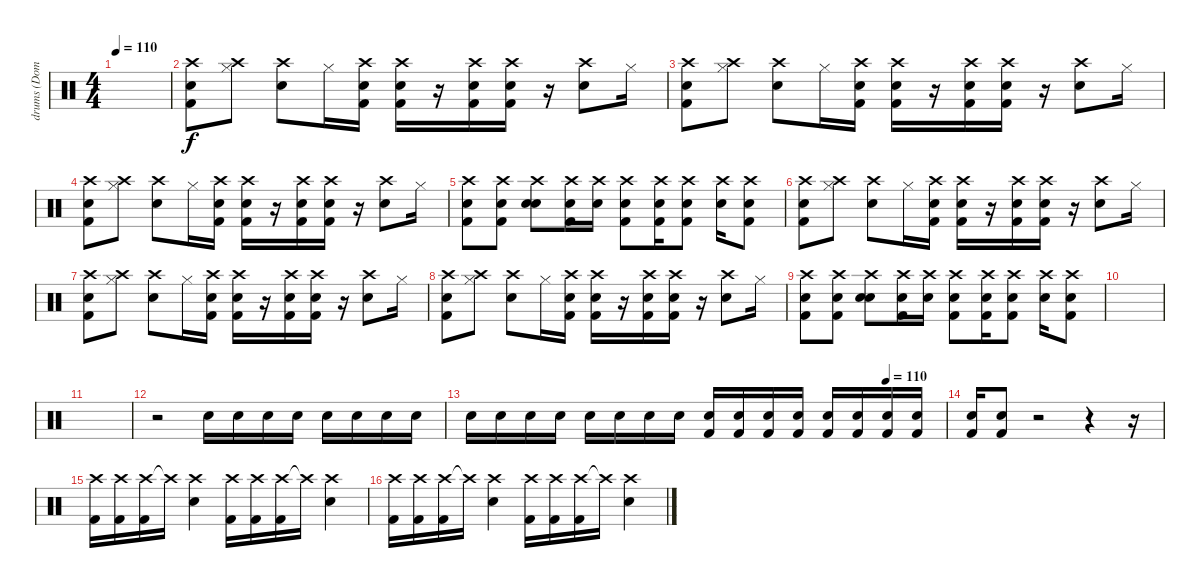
\track ("drums (Dominic howard)" "drums (Dom") {instrument percussion}
\staff {score}
\articulation defaults
\ts (4 4)
\tempo 110
\clef neutral
\ks c
|
("Crash high (hit)" "Kick (hit) 2" "Snare (hit) 2").8 ("Crash high (hit)" "Hi-Hat (closed)").8 ("Crash high (hit)" "Electric Snare (hit)").8 "Hi-Hat (closed)".16 ("Crash high (hit)" "Kick (hit) 2" "Snare (hit) 2").16 ("Crash high (hit)" "Kick (hit) 2" "Snare (hit) 2").16 r.16 ("Crash high (hit)" "Kick (hit) 2" "Snare (hit) 2").16 ("Crash high (hit)" "Kick (hit) 2" "Snare (hit) 2").16 r.16 ("Crash high (hit)" "Electric Snare (hit)").8 "Hi-Hat (closed)".16 |
("Crash high (hit)" "Kick (hit) 2" "Snare (hit) 2").8 ("Crash high (hit)" "Hi-Hat (closed)").8 ("Crash high (hit)" "Electric Snare (hit)").8 "Hi-Hat (closed)".16 ("Crash high (hit)" "Kick (hit) 2" "Snare (hit) 2").16 ("Crash high (hit)" "Kick (hit) 2" "Snare (hit) 2").16 r.16 ("Crash high (hit)" "Kick (hit) 2" "Snare (hit) 2").16 ("Crash high (hit)" "Kick (hit) 2" "Snare (hit) 2").16 r.16 ("Crash high (hit)" "Electric Snare (hit)").8 "Hi-Hat (closed)".16 |
("Crash high (hit)" "Kick (hit) 2" "Snare (hit) 2").8 ("Crash high (hit)" "Hi-Hat (closed)").8 ("Crash high (hit)" "Electric Snare (hit)").8 "Hi-Hat (closed)".16 ("Crash high (hit)" "Kick (hit) 2" "Snare (hit) 2").16 ("Crash high (hit)" "Kick (hit) 2" "Snare (hit) 2").16 r.16 ("Crash high (hit)" "Kick (hit) 2" "Snare (hit) 2").16 ("Crash high (hit)" "Kick (hit) 2" "Snare (hit) 2").16 r.16 ("Crash high (hit)" "Electric Snare (hit)").8 "Hi-Hat (closed)".16 |
("Crash high (hit)" "Kick (hit) 2" "Snare (hit) 2").8 ("Crash high (hit)" "Kick (hit) 2" "Snare (hit) 2").8 ("Crash high (hit)" "Electric Snare (hit)" "Electric Snare (hit)").8 ("Crash high (hit)" "Kick (hit) 2" "Snare (hit) 2").16 ("Crash high (hit)" "Electric Snare (hit)").16 ("Crash high (hit)" "Kick (hit) 2" "Snare (hit) 2").8 ("Crash high (hit)" "Kick (hit) 2" "Snare (hit) 2").16 ("Crash high (hit)" "Kick (hit) 2" "Snare (hit) 2").8 ("Crash high (hit)" "Electric Snare (hit)").16 ("Crash high (hit)" "Kick (hit) 2" "Snare (hit) 2").8 |
("Crash high (hit)" "Kick (hit) 2" "Snare (hit) 2").8 ("Crash high (hit)" "Hi-Hat (closed)").8 ("Crash high (hit)" "Electric Snare (hit)").8 "Hi-Hat (closed)".16 ("Crash high (hit)" "Kick (hit) 2" "Snare (hit) 2").16 ("Crash high (hit)" "Kick (hit) 2" "Snare (hit) 2").16 r.16 ("Crash high (hit)" "Kick (hit) 2" "Snare (hit) 2").16 ("Crash high (hit)" "Kick (hit) 2" "Snare (hit) 2").16 r.16 ("Crash high (hit)" "Electric Snare (hit)").8 "Hi-Hat (closed)".16 |
("Crash high (hit)" "Kick (hit) 2" "Snare (hit) 2").8 ("Crash high (hit)" "Hi-Hat (closed)").8 ("Crash high (hit)" "Electric Snare (hit)").8 "Hi-Hat (closed)".16 ("Crash high (hit)" "Kick (hit) 2" "Snare (hit) 2").16 ("Crash high (hit)" "Kick (hit) 2" "Snare (hit) 2").16 r.16 ("Crash high (hit)" "Kick (hit) 2" "Snare (hit) 2").16 ("Crash high (hit)" "Kick (hit) 2" "Snare (hit) 2").16 r.16 ("Crash high (hit)" "Electric Snare (hit)").8 "Hi-Hat (closed)".16 |
("Crash high (hit)" "Kick (hit) 2" "Snare (hit) 2").8 ("Crash high (hit)" "Hi-Hat (closed)").8 ("Crash high (hit)" "Electric Snare (hit)").8 "Hi-Hat (closed)".16 ("Crash high (hit)" "Kick (hit) 2" "Snare (hit) 2").16 ("Crash high (hit)" "Kick (hit) 2" "Snare (hit) 2").16 r.16 ("Crash high (hit)" "Kick (hit) 2" "Snare (hit) 2").16 ("Crash high (hit)" "Kick (hit) 2" "Snare (hit) 2").16 r.16 ("Crash high (hit)" "Electric Snare (hit)").8 "Hi-Hat (closed)".16 |
("Crash high (hit)" "Kick (hit) 2" "Snare (hit) 2").8 ("Crash high (hit)" "Kick (hit) 2" "Snare (hit) 2").8 ("Crash high (hit)" "Electric Snare (hit)" "Electric Snare (hit)").8 ("Crash high (hit)" "Kick (hit) 2" "Snare (hit) 2").16 ("Crash high (hit)" "Electric Snare (hit)").16 ("Crash high (hit)" "Kick (hit) 2" "Snare (hit) 2").8 ("Crash high (hit)" "Kick (hit) 2" "Snare (hit) 2").16 ("Crash high (hit)" "Kick (hit) 2" "Snare (hit) 2").8 ("Crash high (hit)" "Electric Snare (hit)").16 ("Crash high (hit)" "Kick (hit) 2" "Snare (hit) 2").8 |
|
|
r.2 "Snare (hit) 2".16{volume 4} "Snare (hit) 2".16 "Snare (hit) 2".16 "Snare (hit) 2".16 "Snare (hit) 2".16 "Snare (hit) 2".16 "Snare (hit) 2".16 "Snare (hit) 2".16 |
\tempo (110 0.875)
"Snare (hit) 2".16{volume 6} "Snare (hit) 2".16 "Snare (hit) 2".16 "Snare (hit) 2".16 "Snare (hit) 2".16 "Snare (hit) 2".16 "Snare (hit) 2".16 "Snare (hit) 2".16 ("Kick (hit) 2" "Snare (hit) 2").16{volume 8} ("Kick (hit) 2" "Snare (hit) 2").16 ("Kick (hit) 2" "Snare (hit) 2").16 ("Kick (hit) 2" "Snare (hit) 2").16 ("Kick (hit) 2" "Snare (hit) 2").16 ("Kick (hit) 2" "Snare (hit) 2").16 ("Kick (hit) 2" "Snare (hit) 2").16{volume 10} ("Kick (hit) 2" "Snare (hit) 2").16 |
("Kick (hit) 2" "Snare (hit) 2").16{volume 10} ("Kick (hit) 2" "Snare (hit) 2").8 r.2 r.4 r.16 |
("Crash high (hit)" "Kick (hit) 2").16 ("Crash high (hit)" "Kick (hit) 2").16 ("Crash high (hit)" "Kick (hit) 2").16 "Crash high (hit)"{t}.16 ("Crash high (hit)" "Electric Snare (hit)").4 ("Crash high (hit)" "Kick (hit) 2").16 ("Crash high (hit)" "Kick (hit) 2").16 ("Crash high (hit)" "Kick (hit) 2").16 "Crash high (hit)"{t}.16 ("Crash high (hit)" "Electric Snare (hit)").4 |
("Crash high (hit)" "Kick (hit) 2").16 ("Crash high (hit)" "Kick (hit) 2").16 ("Crash high (hit)" "Kick (hit) 2").16 "Crash high (hit)"{t}.16 ("Crash high (hit)" "Electric Snare (hit)").4 ("Crash high (hit)" "Kick (hit) 2").16 ("Crash high (hit)" "Kick (hit) 2").16 ("Crash high (hit)" "Kick (hit) 2").16 "Crash high (hit)"{t}.16 ("Crash high (hit)" "Electric Snare (hit)").4
